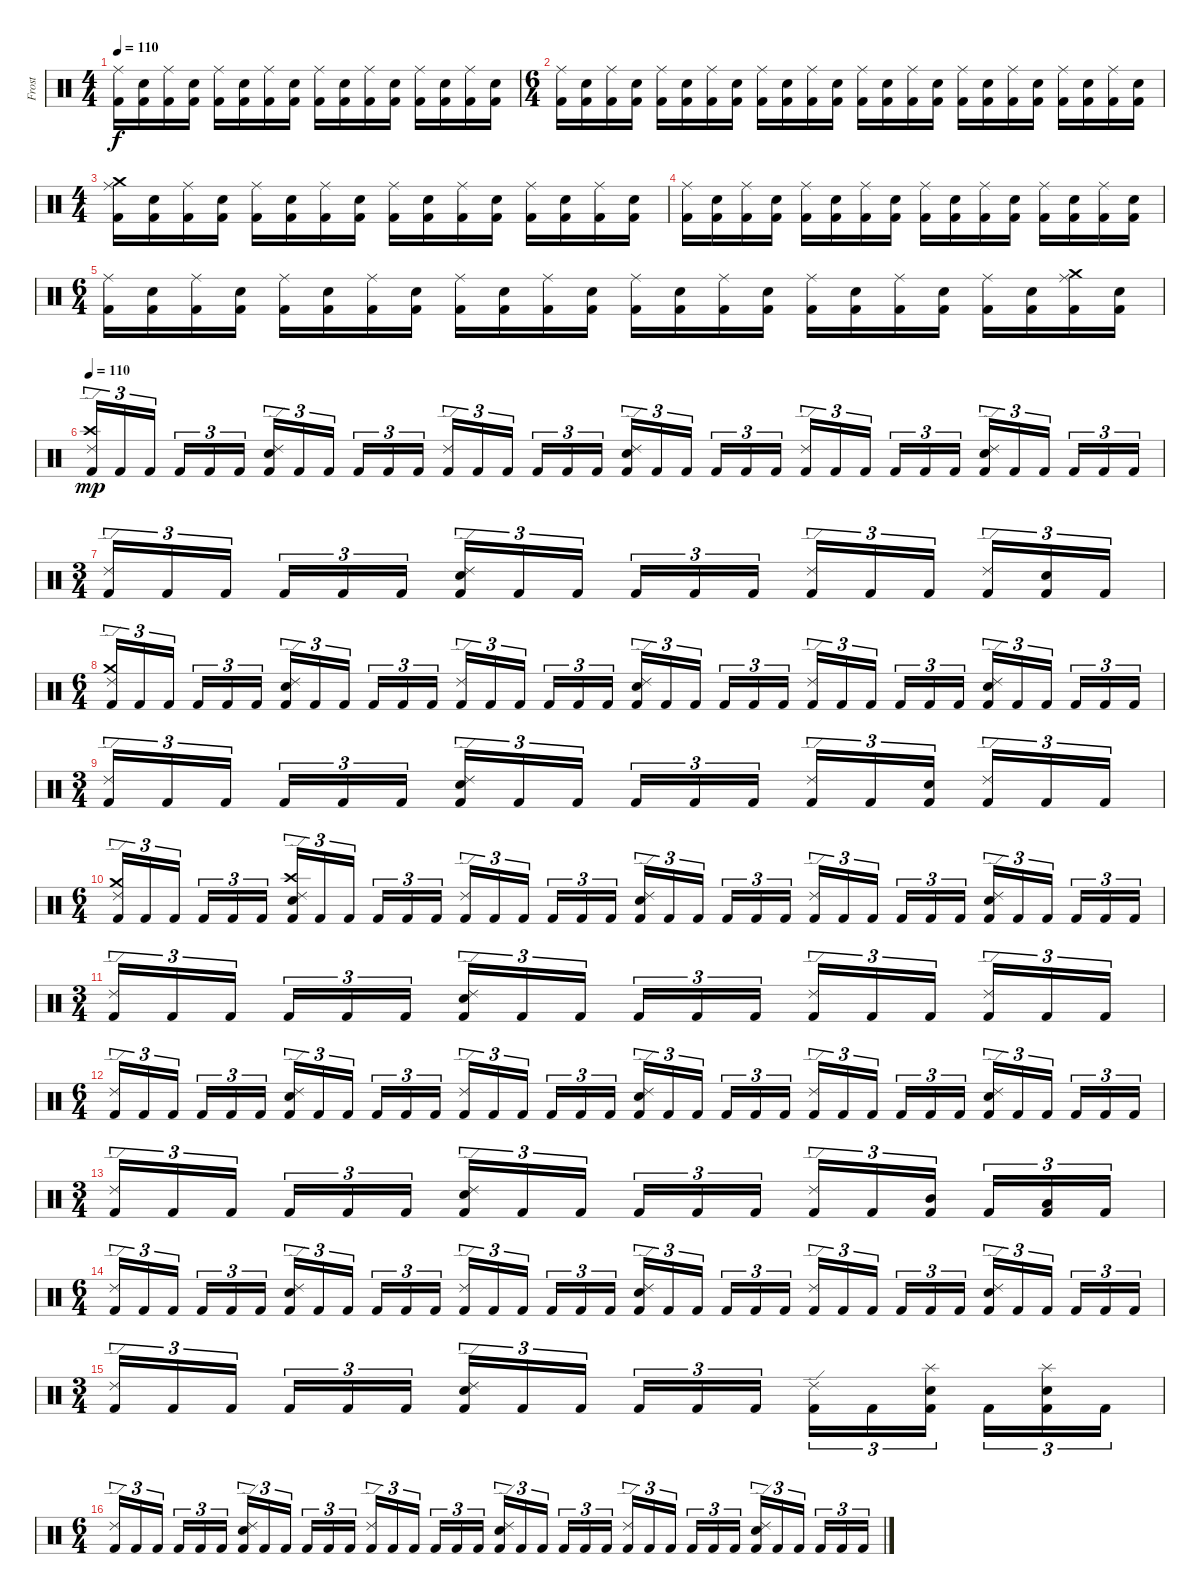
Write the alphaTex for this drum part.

\track ("Frost" "Frost") {instrument percussion}
\staff {score}
\articulation defaults
\ts (4 4)
\tempo 110
\clef neutral
\ks c
("Kick (hit) 2" "Ride (middle)").16{dy f} ("Kick (hit) 2" "Electric Snare (hit)").16 ("Kick (hit) 2" "Ride (middle)").16 ("Kick (hit) 2" "Electric Snare (hit)").16 ("Kick (hit) 2" "Ride (middle)").16 ("Kick (hit) 2" "Electric Snare (hit)").16 ("Kick (hit) 2" "Ride (middle)").16 ("Kick (hit) 2" "Electric Snare (hit)").16 ("Kick (hit) 2" "Ride (middle)").16 ("Kick (hit) 2" "Electric Snare (hit)").16 ("Kick (hit) 2" "Ride (middle)").16 ("Kick (hit) 2" "Electric Snare (hit)").16 ("Kick (hit) 2" "Ride (middle)").16 ("Kick (hit) 2" "Electric Snare (hit)").16 ("Kick (hit) 2" "Ride (middle)").16 ("Kick (hit) 2" "Electric Snare (hit)").16 |
\ts (6 4)
("Kick (hit) 2" "Ride (middle)").16 ("Kick (hit) 2" "Electric Snare (hit)").16 ("Kick (hit) 2" "Ride (middle)").16 ("Kick (hit) 2" "Electric Snare (hit)").16 ("Kick (hit) 2" "Ride (middle)").16 ("Kick (hit) 2" "Electric Snare (hit)").16 ("Kick (hit) 2" "Ride (middle)").16 ("Kick (hit) 2" "Electric Snare (hit)").16 ("Kick (hit) 2" "Ride (middle)").16 ("Kick (hit) 2" "Electric Snare (hit)").16 ("Kick (hit) 2" "Ride (middle)").16 ("Kick (hit) 2" "Electric Snare (hit)").16 ("Kick (hit) 2" "Ride (middle)").16 ("Kick (hit) 2" "Electric Snare (hit)").16 ("Kick (hit) 2" "Ride (middle)").16 ("Kick (hit) 2" "Electric Snare (hit)").16 ("Kick (hit) 2" "Ride (middle)").16 ("Kick (hit) 2" "Electric Snare (hit)").16 ("Kick (hit) 2" "Ride (middle)").16 ("Kick (hit) 2" "Electric Snare (hit)").16 ("Kick (hit) 2" "Ride (middle)").16 ("Kick (hit) 2" "Electric Snare (hit)").16 ("Kick (hit) 2" "Ride (middle)").16 ("Kick (hit) 2" "Electric Snare (hit)").16 |
\ts (4 4)
("Kick (hit) 2" "Crash medium (hit)" "Ride (middle)").16 ("Kick (hit) 2" "Electric Snare (hit)").16 ("Kick (hit) 2" "Ride (middle)").16 ("Kick (hit) 2" "Electric Snare (hit)").16 ("Kick (hit) 2" "Ride (middle)").16 ("Kick (hit) 2" "Electric Snare (hit)").16 ("Kick (hit) 2" "Ride (middle)").16 ("Kick (hit) 2" "Electric Snare (hit)").16 ("Kick (hit) 2" "Ride (middle)").16 ("Kick (hit) 2" "Electric Snare (hit)").16 ("Kick (hit) 2" "Ride (middle)").16 ("Kick (hit) 2" "Electric Snare (hit)").16 ("Kick (hit) 2" "Ride (middle)").16 ("Kick (hit) 2" "Electric Snare (hit)").16 ("Kick (hit) 2" "Ride (middle)").16 ("Kick (hit) 2" "Electric Snare (hit)").16 |
("Kick (hit) 2" "Ride (middle)").16 ("Kick (hit) 2" "Electric Snare (hit)").16 ("Kick (hit) 2" "Ride (middle)").16 ("Kick (hit) 2" "Electric Snare (hit)").16 ("Kick (hit) 2" "Ride (middle)").16 ("Kick (hit) 2" "Electric Snare (hit)").16 ("Kick (hit) 2" "Ride (middle)").16 ("Kick (hit) 2" "Electric Snare (hit)").16 ("Kick (hit) 2" "Ride (middle)").16 ("Kick (hit) 2" "Electric Snare (hit)").16 ("Kick (hit) 2" "Ride (middle)").16 ("Kick (hit) 2" "Electric Snare (hit)").16 ("Kick (hit) 2" "Ride (middle)").16 ("Kick (hit) 2" "Electric Snare (hit)").16 ("Kick (hit) 2" "Ride (middle)").16 ("Kick (hit) 2" "Electric Snare (hit)").16 |
\ts (6 4)
("Kick (hit) 2" "Ride (middle)").16 ("Kick (hit) 2" "Electric Snare (hit)").16 ("Kick (hit) 2" "Ride (middle)").16 ("Kick (hit) 2" "Electric Snare (hit)").16 ("Kick (hit) 2" "Ride (middle)").16 ("Kick (hit) 2" "Electric Snare (hit)").16 ("Kick (hit) 2" "Ride (middle)").16 ("Kick (hit) 2" "Electric Snare (hit)").16 ("Kick (hit) 2" "Ride (middle)").16 ("Kick (hit) 2" "Electric Snare (hit)").16 ("Kick (hit) 2" "Ride (middle)").16 ("Kick (hit) 2" "Electric Snare (hit)").16 ("Kick (hit) 2" "Ride (middle)").16 ("Kick (hit) 2" "Electric Snare (hit)").16 ("Kick (hit) 2" "Ride (middle)").16 ("Kick (hit) 2" "Electric Snare (hit)").16 ("Kick (hit) 2" "Ride (middle)").16 ("Kick (hit) 2" "Electric Snare (hit)").16 ("Kick (hit) 2" "Ride (middle)").16 ("Kick (hit) 2" "Electric Snare (hit)").16 ("Kick (hit) 2" "Ride (middle)").16 ("Kick (hit) 2" "Electric Snare (hit)").16 ("Kick (hit) 2" "Crash medium (hit)" "Ride (middle)").16 ("Kick (hit) 2" "Electric Snare (hit)").16 |
\tempo 110
("Kick (hit) 2" "Crash high (hit)" "Ride (edge) 2").16{tu (3 2) dy mp} "Kick (hit) 2".16{tu (3 2)} "Kick (hit) 2".16{tu (3 2)} "Kick (hit) 2".16{tu (3 2)} "Kick (hit) 2".16{tu (3 2)} "Kick (hit) 2".16{tu (3 2)} ("Kick (hit) 2" "Ride (edge) 2" "Snare (hit) 2").16{tu (3 2)} "Kick (hit) 2".16{tu (3 2)} "Kick (hit) 2".16{tu (3 2)} "Kick (hit) 2".16{tu (3 2)} "Kick (hit) 2".16{tu (3 2)} "Kick (hit) 2".16{tu (3 2)} ("Kick (hit) 2" "Ride (edge) 2").16{tu (3 2)} "Kick (hit) 2".16{tu (3 2)} "Kick (hit) 2".16{tu (3 2)} "Kick (hit) 2".16{tu (3 2)} "Kick (hit) 2".16{tu (3 2)} "Kick (hit) 2".16{tu (3 2)} ("Kick (hit) 2" "Ride (edge) 2" "Snare (hit) 2").16{tu (3 2)} "Kick (hit) 2".16{tu (3 2)} "Kick (hit) 2".16{tu (3 2)} "Kick (hit) 2".16{tu (3 2)} "Kick (hit) 2".16{tu (3 2)} "Kick (hit) 2".16{tu (3 2)} ("Kick (hit) 2" "Ride (edge) 2").16{tu (3 2)} "Kick (hit) 2".16{tu (3 2)} "Kick (hit) 2".16{tu (3 2)} "Kick (hit) 2".16{tu (3 2)} "Kick (hit) 2".16{tu (3 2)} "Kick (hit) 2".16{tu (3 2)} ("Kick (hit) 2" "Ride (edge) 2" "Snare (hit) 2").16{tu (3 2)} "Kick (hit) 2".16{tu (3 2)} "Kick (hit) 2".16{tu (3 2)} "Kick (hit) 2".16{tu (3 2)} "Kick (hit) 2".16{tu (3 2)} "Kick (hit) 2".16{tu (3 2)} |
\ts (3 4)
("Kick (hit) 2" "Ride (edge) 2").16{tu (3 2)} "Kick (hit) 2".16{tu (3 2)} "Kick (hit) 2".16{tu (3 2)} "Kick (hit) 2".16{tu (3 2)} "Kick (hit) 2".16{tu (3 2)} "Kick (hit) 2".16{tu (3 2)} ("Kick (hit) 2" "Ride (edge) 2" "Snare (hit) 2").16{tu (3 2)} "Kick (hit) 2".16{tu (3 2)} "Kick (hit) 2".16{tu (3 2)} "Kick (hit) 2".16{tu (3 2)} "Kick (hit) 2".16{tu (3 2)} "Kick (hit) 2".16{tu (3 2)} ("Kick (hit) 2" "Ride (edge) 2").16{tu (3 2)} "Kick (hit) 2".16{tu (3 2)} "Kick (hit) 2".16{tu (3 2)} ("Kick (hit) 2" "Ride (edge) 2").16{tu (3 2)} ("Kick (hit) 2" "Snare (hit) 2").16{tu (3 2)} "Kick (hit) 2".16{tu (3 2)} |
\ts (6 4)
("Kick (hit) 2" "Crash medium (hit)" "Ride (edge) 2").16{tu (3 2)} "Kick (hit) 2".16{tu (3 2)} "Kick (hit) 2".16{tu (3 2)} "Kick (hit) 2".16{tu (3 2)} "Kick (hit) 2".16{tu (3 2)} "Kick (hit) 2".16{tu (3 2)} ("Kick (hit) 2" "Ride (edge) 2" "Snare (hit) 2").16{tu (3 2)} "Kick (hit) 2".16{tu (3 2)} "Kick (hit) 2".16{tu (3 2)} "Kick (hit) 2".16{tu (3 2)} "Kick (hit) 2".16{tu (3 2)} "Kick (hit) 2".16{tu (3 2)} ("Kick (hit) 2" "Ride (edge) 2").16{tu (3 2)} "Kick (hit) 2".16{tu (3 2)} "Kick (hit) 2".16{tu (3 2)} "Kick (hit) 2".16{tu (3 2)} "Kick (hit) 2".16{tu (3 2)} "Kick (hit) 2".16{tu (3 2)} ("Kick (hit) 2" "Ride (edge) 2" "Snare (hit) 2").16{tu (3 2)} "Kick (hit) 2".16{tu (3 2)} "Kick (hit) 2".16{tu (3 2)} "Kick (hit) 2".16{tu (3 2)} "Kick (hit) 2".16{tu (3 2)} "Kick (hit) 2".16{tu (3 2)} ("Kick (hit) 2" "Ride (edge) 2").16{tu (3 2)} "Kick (hit) 2".16{tu (3 2)} "Kick (hit) 2".16{tu (3 2)} "Kick (hit) 2".16{tu (3 2)} "Kick (hit) 2".16{tu (3 2)} "Kick (hit) 2".16{tu (3 2)} ("Kick (hit) 2" "Ride (edge) 2" "Snare (hit) 2").16{tu (3 2)} "Kick (hit) 2".16{tu (3 2)} "Kick (hit) 2".16{tu (3 2)} "Kick (hit) 2".16{tu (3 2)} "Kick (hit) 2".16{tu (3 2)} "Kick (hit) 2".16{tu (3 2)} |
\ts (3 4)
("Kick (hit) 2" "Ride (edge) 2").16{tu (3 2)} "Kick (hit) 2".16{tu (3 2)} "Kick (hit) 2".16{tu (3 2)} "Kick (hit) 2".16{tu (3 2)} "Kick (hit) 2".16{tu (3 2)} "Kick (hit) 2".16{tu (3 2)} ("Kick (hit) 2" "Ride (edge) 2" "Snare (hit) 2").16{tu (3 2)} "Kick (hit) 2".16{tu (3 2)} "Kick (hit) 2".16{tu (3 2)} "Kick (hit) 2".16{tu (3 2)} "Kick (hit) 2".16{tu (3 2)} "Kick (hit) 2".16{tu (3 2)} ("Kick (hit) 2" "Ride (edge) 2").16{tu (3 2)} "Kick (hit) 2".16{tu (3 2)} ("Kick (hit) 2" "Snare (hit) 2").16{tu (3 2)} ("Kick (hit) 2" "Ride (edge) 2").16{tu (3 2)} "Kick (hit) 2".16{tu (3 2)} "Kick (hit) 2".16{tu (3 2)} |
\ts (6 4)
("Kick (hit) 2" "Crash medium (hit)" "Ride (edge) 2").16{tu (3 2)} "Kick (hit) 2".16{tu (3 2)} "Kick (hit) 2".16{tu (3 2)} "Kick (hit) 2".16{tu (3 2)} "Kick (hit) 2".16{tu (3 2)} "Kick (hit) 2".16{tu (3 2)} ("Kick (hit) 2" "Crash high (hit)" "Ride (edge) 2" "Snare (hit) 2").16{tu (3 2)} "Kick (hit) 2".16{tu (3 2)} "Kick (hit) 2".16{tu (3 2)} "Kick (hit) 2".16{tu (3 2)} "Kick (hit) 2".16{tu (3 2)} "Kick (hit) 2".16{tu (3 2)} ("Kick (hit) 2" "Ride (edge) 2").16{tu (3 2)} "Kick (hit) 2".16{tu (3 2)} "Kick (hit) 2".16{tu (3 2)} "Kick (hit) 2".16{tu (3 2)} "Kick (hit) 2".16{tu (3 2)} "Kick (hit) 2".16{tu (3 2)} ("Kick (hit) 2" "Ride (edge) 2" "Snare (hit) 2").16{tu (3 2)} "Kick (hit) 2".16{tu (3 2)} "Kick (hit) 2".16{tu (3 2)} "Kick (hit) 2".16{tu (3 2)} "Kick (hit) 2".16{tu (3 2)} "Kick (hit) 2".16{tu (3 2)} ("Kick (hit) 2" "Ride (edge) 2").16{tu (3 2)} "Kick (hit) 2".16{tu (3 2)} "Kick (hit) 2".16{tu (3 2)} "Kick (hit) 2".16{tu (3 2)} "Kick (hit) 2".16{tu (3 2)} "Kick (hit) 2".16{tu (3 2)} ("Kick (hit) 2" "Ride (edge) 2" "Snare (hit) 2").16{tu (3 2)} "Kick (hit) 2".16{tu (3 2)} "Kick (hit) 2".16{tu (3 2)} "Kick (hit) 2".16{tu (3 2)} "Kick (hit) 2".16{tu (3 2)} "Kick (hit) 2".16{tu (3 2)} |
\ts (3 4)
("Kick (hit) 2" "Ride (edge) 2").16{tu (3 2)} "Kick (hit) 2".16{tu (3 2)} "Kick (hit) 2".16{tu (3 2)} "Kick (hit) 2".16{tu (3 2)} "Kick (hit) 2".16{tu (3 2)} "Kick (hit) 2".16{tu (3 2)} ("Kick (hit) 2" "Ride (edge) 2" "Snare (hit) 2").16{tu (3 2)} "Kick (hit) 2".16{tu (3 2)} "Kick (hit) 2".16{tu (3 2)} "Kick (hit) 2".16{tu (3 2)} "Kick (hit) 2".16{tu (3 2)} "Kick (hit) 2".16{tu (3 2)} ("Kick (hit) 2" "Ride (edge) 2").16{tu (3 2)} "Kick (hit) 2".16{tu (3 2)} "Kick (hit) 2".16{tu (3 2)} ("Kick (hit) 2" "Ride (edge) 2").16{tu (3 2)} "Kick (hit) 2".16{tu (3 2)} "Kick (hit) 2".16{tu (3 2)} |
\ts (6 4)
("Kick (hit) 2" "Ride (edge) 2").16{tu (3 2)} "Kick (hit) 2".16{tu (3 2)} "Kick (hit) 2".16{tu (3 2)} "Kick (hit) 2".16{tu (3 2)} "Kick (hit) 2".16{tu (3 2)} "Kick (hit) 2".16{tu (3 2)} ("Kick (hit) 2" "Ride (edge) 2" "Snare (hit) 2").16{tu (3 2)} "Kick (hit) 2".16{tu (3 2)} "Kick (hit) 2".16{tu (3 2)} "Kick (hit) 2".16{tu (3 2)} "Kick (hit) 2".16{tu (3 2)} "Kick (hit) 2".16{tu (3 2)} ("Kick (hit) 2" "Ride (edge) 2").16{tu (3 2)} "Kick (hit) 2".16{tu (3 2)} "Kick (hit) 2".16{tu (3 2)} "Kick (hit) 2".16{tu (3 2)} "Kick (hit) 2".16{tu (3 2)} "Kick (hit) 2".16{tu (3 2)} ("Kick (hit) 2" "Ride (edge) 2" "Snare (hit) 2").16{tu (3 2)} "Kick (hit) 2".16{tu (3 2)} "Kick (hit) 2".16{tu (3 2)} "Kick (hit) 2".16{tu (3 2)} "Kick (hit) 2".16{tu (3 2)} "Kick (hit) 2".16{tu (3 2)} ("Kick (hit) 2" "Ride (edge) 2").16{tu (3 2)} "Kick (hit) 2".16{tu (3 2)} "Kick (hit) 2".16{tu (3 2)} "Kick (hit) 2".16{tu (3 2)} "Kick (hit) 2".16{tu (3 2)} "Kick (hit) 2".16{tu (3 2)} ("Kick (hit) 2" "Ride (edge) 2" "Snare (hit) 2").16{tu (3 2)} "Kick (hit) 2".16{tu (3 2)} "Kick (hit) 2".16{tu (3 2)} "Kick (hit) 2".16{tu (3 2)} "Kick (hit) 2".16{tu (3 2)} "Kick (hit) 2".16{tu (3 2)} |
\ts (3 4)
("Kick (hit) 2" "Ride (edge) 2").16{tu (3 2)} "Kick (hit) 2".16{tu (3 2)} "Kick (hit) 2".16{tu (3 2)} "Kick (hit) 2".16{tu (3 2)} "Kick (hit) 2".16{tu (3 2)} "Kick (hit) 2".16{tu (3 2)} ("Kick (hit) 2" "Ride (edge) 2" "Snare (hit) 2").16{tu (3 2)} "Kick (hit) 2".16{tu (3 2)} "Kick (hit) 2".16{tu (3 2)} "Kick (hit) 2".16{tu (3 2)} "Kick (hit) 2".16{tu (3 2)} "Kick (hit) 2".16{tu (3 2)} ("Kick (hit) 2" "Ride (edge) 2").16{tu (3 2)} "Kick (hit) 2".16{tu (3 2)} ("Kick (hit) 2" "Mid Tom (hit)").16{tu (3 2)} "Kick (hit) 2".16{tu (3 2)} ("Kick (hit) 2" "Low Tom (hit)").16{tu (3 2)} "Kick (hit) 2".16{tu (3 2)} |
\ts (6 4)
("Kick (hit) 2" "Ride (edge) 2").16{tu (3 2)} "Kick (hit) 2".16{tu (3 2)} "Kick (hit) 2".16{tu (3 2)} "Kick (hit) 2".16{tu (3 2)} "Kick (hit) 2".16{tu (3 2)} "Kick (hit) 2".16{tu (3 2)} ("Kick (hit) 2" "Ride (edge) 2" "Snare (hit) 2").16{tu (3 2)} "Kick (hit) 2".16{tu (3 2)} "Kick (hit) 2".16{tu (3 2)} "Kick (hit) 2".16{tu (3 2)} "Kick (hit) 2".16{tu (3 2)} "Kick (hit) 2".16{tu (3 2)} ("Kick (hit) 2" "Ride (edge) 2").16{tu (3 2)} "Kick (hit) 2".16{tu (3 2)} "Kick (hit) 2".16{tu (3 2)} "Kick (hit) 2".16{tu (3 2)} "Kick (hit) 2".16{tu (3 2)} "Kick (hit) 2".16{tu (3 2)} ("Kick (hit) 2" "Ride (edge) 2" "Snare (hit) 2").16{tu (3 2)} "Kick (hit) 2".16{tu (3 2)} "Kick (hit) 2".16{tu (3 2)} "Kick (hit) 2".16{tu (3 2)} "Kick (hit) 2".16{tu (3 2)} "Kick (hit) 2".16{tu (3 2)} ("Kick (hit) 2" "Ride (edge) 2").16{tu (3 2)} "Kick (hit) 2".16{tu (3 2)} "Kick (hit) 2".16{tu (3 2)} "Kick (hit) 2".16{tu (3 2)} "Kick (hit) 2".16{tu (3 2)} "Kick (hit) 2".16{tu (3 2)} ("Kick (hit) 2" "Ride (edge) 2" "Snare (hit) 2").16{tu (3 2)} "Kick (hit) 2".16{tu (3 2)} "Kick (hit) 2".16{tu (3 2)} "Kick (hit) 2".16{tu (3 2)} "Kick (hit) 2".16{tu (3 2)} "Kick (hit) 2".16{tu (3 2)} |
\ts (3 4)
("Kick (hit) 2" "Ride (edge) 2").16{tu (3 2)} "Kick (hit) 2".16{tu (3 2)} "Kick (hit) 2".16{tu (3 2)} "Kick (hit) 2".16{tu (3 2)} "Kick (hit) 2".16{tu (3 2)} "Kick (hit) 2".16{tu (3 2)} ("Kick (hit) 2" "Ride (edge) 2" "Snare (hit) 2").16{tu (3 2)} "Kick (hit) 2".16{tu (3 2)} "Kick (hit) 2".16{tu (3 2)} "Kick (hit) 2".16{tu (3 2)} "Kick (hit) 2".16{tu (3 2)} "Kick (hit) 2".16{tu (3 2)} ("Kick (hit) 2" "Ride (edge) 2").16{tu (3 2)} "Kick (hit) 2".16{tu (3 2)} ("Kick (hit) 2" "Electric Snare (hit)" "Splash (hit)").16{tu (3 2)} "Kick (hit) 2".16{tu (3 2)} ("Kick (hit) 2" "Electric Snare (hit)" "Splash (hit)").16{tu (3 2)} "Kick (hit) 2".16{tu (3 2)} |
\ts (6 4)
("Kick (hit) 2" "Ride (edge) 2").16{tu (3 2)} "Kick (hit) 2".16{tu (3 2)} "Kick (hit) 2".16{tu (3 2)} "Kick (hit) 2".16{tu (3 2)} "Kick (hit) 2".16{tu (3 2)} "Kick (hit) 2".16{tu (3 2)} ("Kick (hit) 2" "Ride (edge) 2" "Snare (hit) 2").16{tu (3 2)} "Kick (hit) 2".16{tu (3 2)} "Kick (hit) 2".16{tu (3 2)} "Kick (hit) 2".16{tu (3 2)} "Kick (hit) 2".16{tu (3 2)} "Kick (hit) 2".16{tu (3 2)} ("Kick (hit) 2" "Ride (edge) 2").16{tu (3 2)} "Kick (hit) 2".16{tu (3 2)} "Kick (hit) 2".16{tu (3 2)} "Kick (hit) 2".16{tu (3 2)} "Kick (hit) 2".16{tu (3 2)} "Kick (hit) 2".16{tu (3 2)} ("Kick (hit) 2" "Ride (edge) 2" "Snare (hit) 2").16{tu (3 2)} "Kick (hit) 2".16{tu (3 2)} "Kick (hit) 2".16{tu (3 2)} "Kick (hit) 2".16{tu (3 2)} "Kick (hit) 2".16{tu (3 2)} "Kick (hit) 2".16{tu (3 2)} ("Kick (hit) 2" "Ride (edge) 2").16{tu (3 2)} "Kick (hit) 2".16{tu (3 2)} "Kick (hit) 2".16{tu (3 2)} "Kick (hit) 2".16{tu (3 2)} "Kick (hit) 2".16{tu (3 2)} "Kick (hit) 2".16{tu (3 2)} ("Kick (hit) 2" "Ride (edge) 2" "Snare (hit) 2").16{tu (3 2)} "Kick (hit) 2".16{tu (3 2)} "Kick (hit) 2".16{tu (3 2)} "Kick (hit) 2".16{tu (3 2)} "Kick (hit) 2".16{tu (3 2)} "Kick (hit) 2".16{tu (3 2)}
